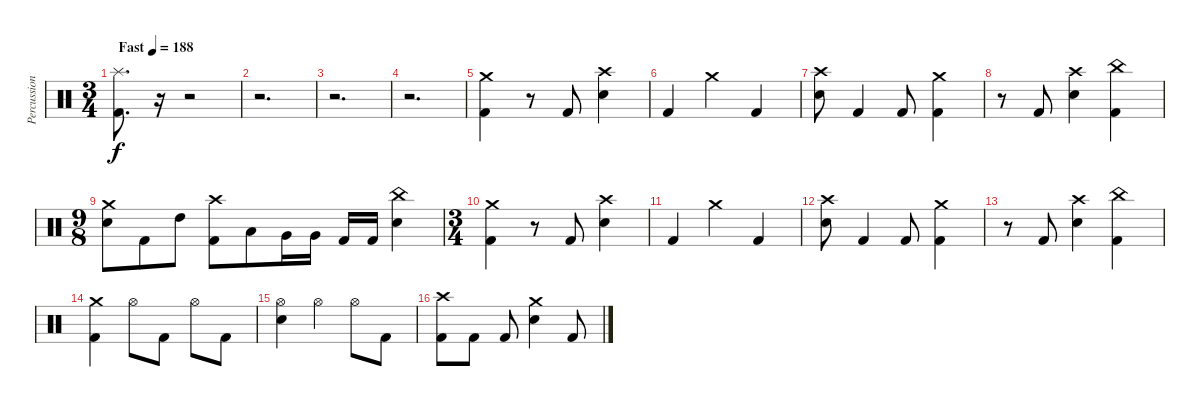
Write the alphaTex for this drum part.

\track ("Percussion" "Percussion") {instrument percussion}
\staff {score}
\articulation defaults
\ts (3 4)
\tempo (188 "Fast")
\clef neutral
\ks c
("Splash (hit)" "Kick (hit) 2").8{d dy f} r.16{volume 0} r.2 |
r.2{d} |
r.2{d} |
r.2{d} |
("Crash medium (hit)" "Kick (hit) 2").4{volume 14} r.8 "Kick (hit) 2".8 ("Crash high (hit)" "Electric Snare (hit)").4 |
"Kick (hit) 2".4 "Crash medium (hit)".4 "Kick (hit) 2".4 |
("Crash high (hit)" "Electric Snare (hit)").8 "Kick (hit) 2".4 "Kick (hit) 2".8 ("Crash medium (hit)" "Kick (hit) 2").4 |
r.8 "Kick (hit) 2".8 ("Crash high (hit)" "Electric Snare (hit)").4 ("China (hit)" "Kick (hit) 2").4 |
\ts (9 8)
("Crash medium (hit)" "Electric Snare (hit)").8 "Kick (hit) 2".8 "High Tom (hit)".8 ("Crash high (hit)" "Kick (hit) 2").8 "Low Tom (hit)".8 "Very Low Tom (hit)".16 "Very Low Tom (hit)".16 "Kick (hit) 2".16 "Kick (hit) 2".16 ("China (hit)" "Electric Snare (hit)").4 |
\ts (3 4)
("Crash medium (hit)" "Kick (hit) 2").4 r.8 "Kick (hit) 2".8 ("Crash high (hit)" "Electric Snare (hit)").4 |
"Kick (hit) 2".4 "Crash medium (hit)".4 "Kick (hit) 2".4 |
("Crash high (hit)" "Electric Snare (hit)").8 "Kick (hit) 2".4 "Kick (hit) 2".8 ("Crash medium (hit)" "Kick (hit) 2").4 |
r.8 "Kick (hit) 2".8 ("Crash high (hit)" "Electric Snare (hit)").4 ("China (hit)" "Kick (hit) 2").4 |
("Crash medium (hit)" "Kick (hit) 2").4 "Hi-Hat (open)".8 "Kick (hit) 2".8 "Hi-Hat (open)".8 "Kick (hit) 2".8 |
("Hi-Hat (open)" "Electric Snare (hit)").4 "Hi-Hat (open)".4 "Hi-Hat (open)".8 "Kick (hit) 2".8 |
("Crash high (hit)" "Kick (hit) 2").8 "Kick (hit) 2".8 "Kick (hit) 2".8 ("Crash medium (hit)" "Electric Snare (hit)").4 "Kick (hit) 2".8
